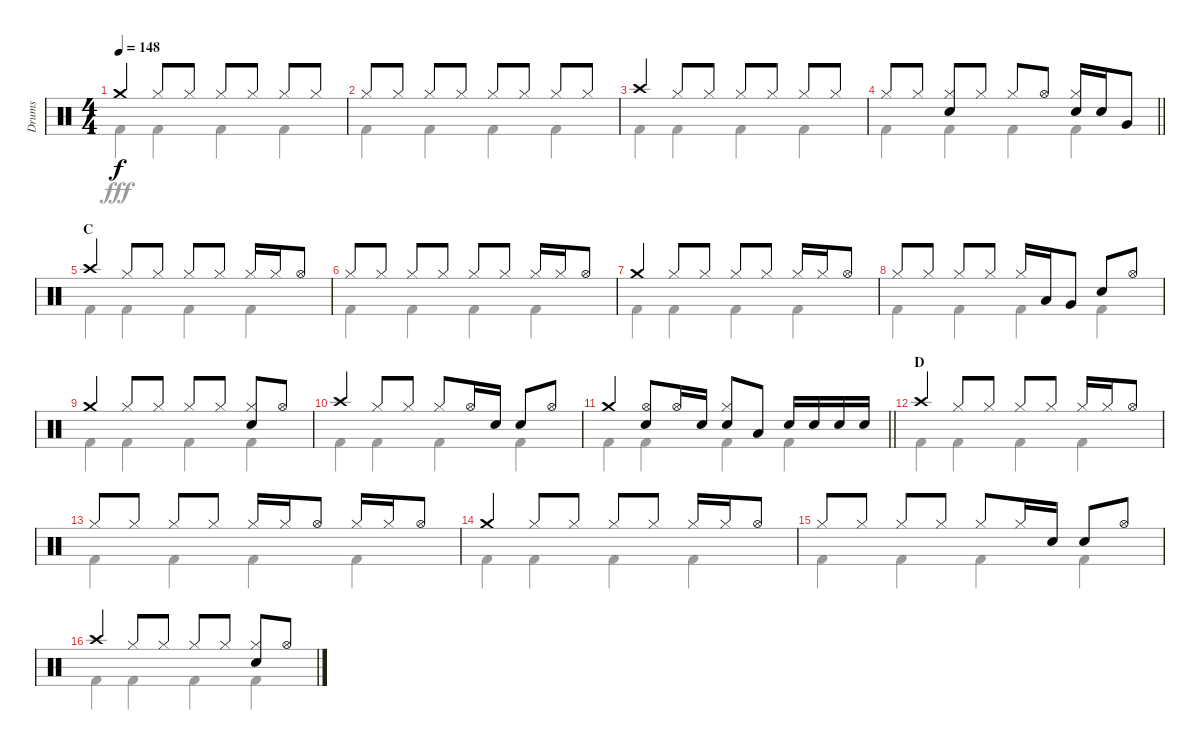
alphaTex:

\track ("Drums" "Drums") {instrument percussion}
\staff {score}
\articulation defaults
\voice
\ts (4 4)
\tempo 148
\clef neutral
\ks c "Crash medium (hit)".4{dy f} "Hi-Hat (closed)".8 "Hi-Hat (closed)".8 "Hi-Hat (closed)".8 "Hi-Hat (closed)".8 "Hi-Hat (closed)".8 "Hi-Hat (closed)".8
|
"Hi-Hat (closed)".8 "Hi-Hat (closed)".8 "Hi-Hat (closed)".8 "Hi-Hat (closed)".8 "Hi-Hat (closed)".8 "Hi-Hat (closed)".8 "Hi-Hat (closed)".8 "Hi-Hat (closed)".8 |
"Crash high (hit)".4 "Hi-Hat (closed)".8 "Hi-Hat (closed)".8 "Hi-Hat (closed)".8 "Hi-Hat (closed)".8 "Hi-Hat (closed)".8 "Hi-Hat (closed)".8 |
\barLineRight lightlight "Hi-Hat (closed)".8 "Hi-Hat (closed)".8
("Hi-Hat (closed)" "Snare (hit) 2").8 "Hi-Hat (closed)".8 "Hi-Hat (closed)".8 "Hi-Hat (open)".8 ("Hi-Hat (closed)" "Snare (hit) 2").16 "Snare (hit) 2".16 "Very Low Tom (hit)".8 |
\section ("" "C")
"Crash high (hit)".4 "Hi-Hat (closed)".8 "Hi-Hat (closed)".8 "Hi-Hat (closed)".8 "Hi-Hat (closed)".8 "Hi-Hat (closed)".16 "Hi-Hat (closed)".16 "Hi-Hat (open)".8 |
"Hi-Hat (closed)".8 "Hi-Hat (closed)".8 "Hi-Hat (closed)".8 "Hi-Hat (closed)".8 "Hi-Hat (closed)".8 "Hi-Hat (closed)".8 "Hi-Hat (closed)".16 "Hi-Hat (closed)".16 "Hi-Hat (open)".8 |
"Crash medium (hit)".4 "Hi-Hat (closed)".8 "Hi-Hat (closed)".8 "Hi-Hat (closed)".8 "Hi-Hat (closed)".8 "Hi-Hat (closed)".16 "Hi-Hat (closed)".16 "Hi-Hat (open)".8 |
"Hi-Hat (closed)".8 "Hi-Hat (closed)".8 "Hi-Hat (closed)".8 "Hi-Hat (closed)".8 "Hi-Hat (closed)".16 "Low Tom (hit)".16 "Very Low Tom (hit)".8 "Snare (hit) 2".8 "Hi-Hat (open)".8 |
"Crash medium (hit)".4 "Hi-Hat (closed)".8 "Hi-Hat (closed)".8 "Hi-Hat (closed)".8 "Hi-Hat (closed)".8 ("Hi-Hat (closed)" "Snare (hit) 2").8 "Hi-Hat (open)".8 |
"Crash high (hit)".4 "Hi-Hat (closed)".8 "Hi-Hat (closed)".8 "Hi-Hat (closed)".8 "Hi-Hat (open)".16 "Snare (hit) 2".16 "Snare (hit) 2".8 "Hi-Hat (open)".8 |
\barLineRight lightlight "Crash medium (hit)".4
("Hi-Hat (open)" "Snare (hit) 2").8 "Hi-Hat (open)".16 "Snare (hit) 2".16 ("Hi-Hat (closed)" "Snare (hit) 2").8 "Low Tom (hit)".8 "Snare (hit) 2".16 "Snare (hit) 2".16 "Snare (hit) 2".16 "Snare (hit) 2".16 |
\section ("" "D")
"Crash high (hit)".4 "Hi-Hat (closed)".8 "Hi-Hat (closed)".8 "Hi-Hat (closed)".8 "Hi-Hat (closed)".8 "Hi-Hat (closed)".16 "Hi-Hat (closed)".16 "Hi-Hat (open)".8 |
"Hi-Hat (closed)".8 "Hi-Hat (closed)".8 "Hi-Hat (closed)".8 "Hi-Hat (closed)".8 "Hi-Hat (closed)".16 "Hi-Hat (closed)".16 "Hi-Hat (open)".8 "Hi-Hat (closed)".16 "Hi-Hat (closed)".16 "Hi-Hat (open)".8 |
"Crash medium (hit)".4 "Hi-Hat (closed)".8 "Hi-Hat (closed)".8 "Hi-Hat (closed)".8 "Hi-Hat (closed)".8 "Hi-Hat (closed)".16 "Hi-Hat (closed)".16 "Hi-Hat (open)".8 |
"Hi-Hat (closed)".8 "Hi-Hat (closed)".8 "Hi-Hat (closed)".8 "Hi-Hat (closed)".8 "Hi-Hat (closed)".8 "Hi-Hat (closed)".16 "Snare (hit) 2".16 "Snare (hit) 2".8 "Hi-Hat (open)".8 |
"Crash high (hit)".4 "Hi-Hat (closed)".8 "Hi-Hat (closed)".8 "Hi-Hat (closed)".8 "Hi-Hat (closed)".8 ("Hi-Hat (closed)" "Snare (hit) 2").8 "Hi-Hat (open)".8
\voice
\clef neutral
\ottava regular
\simile none
\ks c "Kick (hit) 2".4{dy fff} "Kick (hit) 2".4 "Kick (hit) 2".4 "Kick (hit) 2".4
|
"Kick (hit) 2".4 "Kick (hit) 2".4 "Kick (hit) 2".4 "Kick (hit) 2".4 |
"Kick (hit) 2".4 "Kick (hit) 2".4 "Kick (hit) 2".4 "Kick (hit) 2".4 |
\barLineRight lightlight "Kick (hit) 2".4 "Kick (hit) 2".4 "Kick (hit) 2".4 "Kick (hit) 2".4
|
"Kick (hit) 2".4 "Kick (hit) 2".4 "Kick (hit) 2".4 "Kick (hit) 2".4 |
"Kick (hit) 2".4 "Kick (hit) 2".4 "Kick (hit) 2".4 "Kick (hit) 2".4 |
"Kick (hit) 2".4 "Kick (hit) 2".4 "Kick (hit) 2".4 "Kick (hit) 2".4 |
"Kick (hit) 2".4 "Kick (hit) 2".4 "Kick (hit) 2".4 "Kick (hit) 2".4 |
"Kick (hit) 2".4 "Kick (hit) 2".4 "Kick (hit) 2".4 "Kick (hit) 2".4 |
"Kick (hit) 2".4 "Kick (hit) 2".4 "Kick (hit) 2".4 "Kick (hit) 2".4 |
\barLineRight lightlight "Kick (hit) 2".4 "Kick (hit) 2".4 "Kick (hit) 2".4 "Kick (hit) 2".4
|
"Kick (hit) 2".4 "Kick (hit) 2".4 "Kick (hit) 2".4 "Kick (hit) 2".4 |
"Kick (hit) 2".4 "Kick (hit) 2".4 "Kick (hit) 2".4 "Kick (hit) 2".4 |
"Kick (hit) 2".4 "Kick (hit) 2".4 "Kick (hit) 2".4 "Kick (hit) 2".4 |
"Kick (hit) 2".4 "Kick (hit) 2".4 "Kick (hit) 2".4 "Kick (hit) 2".4 |
"Kick (hit) 2".4 "Kick (hit) 2".4 "Kick (hit) 2".4 "Kick (hit) 2".4
